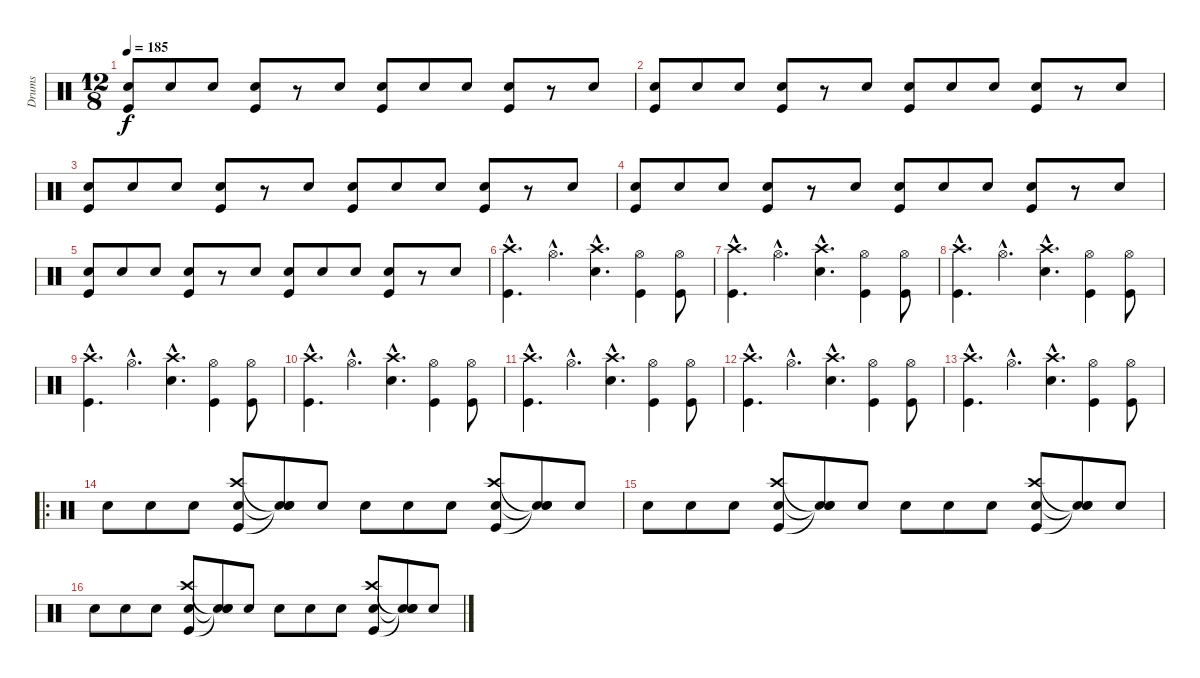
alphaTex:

\track ("Drums" "Drums") {instrument percussion}
\staff {score}
\articulation defaults
\ts (12 8)
\tempo 185
\clef neutral
\ks c
("Snare (hit) 2" "Kick (hit)").8{dy f} "Snare (hit) 2".8 "Snare (hit) 2".8 ("Snare (hit) 2" "Kick (hit)").8 r.8 "Snare (hit) 2".8 ("Snare (hit) 2" "Kick (hit)").8 "Snare (hit) 2".8 "Snare (hit) 2".8 ("Snare (hit) 2" "Kick (hit)").8 r.8 "Snare (hit) 2".8 |
("Snare (hit) 2" "Kick (hit)").8 "Snare (hit) 2".8 "Snare (hit) 2".8 ("Snare (hit) 2" "Kick (hit)").8 r.8 "Snare (hit) 2".8 ("Snare (hit) 2" "Kick (hit)").8 "Snare (hit) 2".8 "Snare (hit) 2".8 ("Snare (hit) 2" "Kick (hit)").8 r.8 "Snare (hit) 2".8 |
("Snare (hit) 2" "Kick (hit)").8 "Snare (hit) 2".8 "Snare (hit) 2".8 ("Snare (hit) 2" "Kick (hit)").8 r.8 "Snare (hit) 2".8 ("Snare (hit) 2" "Kick (hit)").8 "Snare (hit) 2".8 "Snare (hit) 2".8 ("Snare (hit) 2" "Kick (hit)").8 r.8 "Snare (hit) 2".8 |
("Snare (hit) 2" "Kick (hit)").8 "Snare (hit) 2".8 "Snare (hit) 2".8 ("Snare (hit) 2" "Kick (hit)").8 r.8 "Snare (hit) 2".8 ("Snare (hit) 2" "Kick (hit)").8 "Snare (hit) 2".8 "Snare (hit) 2".8 ("Snare (hit) 2" "Kick (hit)").8 r.8 "Snare (hit) 2".8 |
("Snare (hit) 2" "Kick (hit)").8 "Snare (hit) 2".8 "Snare (hit) 2".8 ("Snare (hit) 2" "Kick (hit)").8 r.8 "Snare (hit) 2".8 ("Snare (hit) 2" "Kick (hit)").8 "Snare (hit) 2".8 "Snare (hit) 2".8 ("Snare (hit) 2" "Kick (hit)").8 r.8 "Snare (hit) 2".8 |
("Crash high (hit)"{hac} "Kick (hit)"{hac}).4{d} "Hi-Hat (open)"{hac}.4{d} ("Crash high (hit)"{hac} "Snare (hit) 2"{hac}).4{d} ("Hi-Hat (open)" "Kick (hit)").4 ("Hi-Hat (open)" "Kick (hit)").8 |
("Crash high (hit)"{hac} "Kick (hit)"{hac}).4{d} "Hi-Hat (open)"{hac}.4{d} ("Crash high (hit)"{hac} "Snare (hit) 2"{hac}).4{d} ("Hi-Hat (open)" "Kick (hit)").4 ("Hi-Hat (open)" "Kick (hit)").8 |
("Crash high (hit)"{hac} "Kick (hit)"{hac}).4{d} "Hi-Hat (open)"{hac}.4{d} ("Crash high (hit)"{hac} "Snare (hit) 2"{hac}).4{d} ("Hi-Hat (open)" "Kick (hit)").4 ("Hi-Hat (open)" "Kick (hit)").8 |
("Crash high (hit)"{hac} "Kick (hit)"{hac}).4{d} "Hi-Hat (open)"{hac}.4{d} ("Crash high (hit)"{hac} "Snare (hit) 2"{hac}).4{d} ("Hi-Hat (open)" "Kick (hit)").4 ("Hi-Hat (open)" "Kick (hit)").8 |
("Crash high (hit)"{hac} "Kick (hit)"{hac}).4{d} "Hi-Hat (open)"{hac}.4{d} ("Crash high (hit)"{hac} "Snare (hit) 2"{hac}).4{d} ("Hi-Hat (open)" "Kick (hit)").4 ("Hi-Hat (open)" "Kick (hit)").8 |
("Crash high (hit)"{hac} "Kick (hit)"{hac}).4{d} "Hi-Hat (open)"{hac}.4{d} ("Crash high (hit)"{hac} "Snare (hit) 2"{hac}).4{d} ("Hi-Hat (open)" "Kick (hit)").4 ("Hi-Hat (open)" "Kick (hit)").8 |
("Crash high (hit)"{hac} "Kick (hit)"{hac}).4{d} "Hi-Hat (open)"{hac}.4{d} ("Crash high (hit)"{hac} "Snare (hit) 2"{hac}).4{d} ("Hi-Hat (open)" "Kick (hit)").4 ("Hi-Hat (open)" "Kick (hit)").8 |
("Crash high (hit)"{hac} "Kick (hit)"{hac}).4{d} "Hi-Hat (open)"{hac}.4{d} ("Crash high (hit)"{hac} "Snare (hit) 2"{hac}).4{d} ("Hi-Hat (open)" "Kick (hit)").4 ("Hi-Hat (open)" "Kick (hit)").8 |
\ro "Snare (hit) 2".8 "Snare (hit) 2".8 "Snare (hit) 2".8
("Electric Snare (hit)" "Crash high (hit)" "Kick (hit)").8 ("Snare (hit)"{t} "Snare (hit)"{t} "Snare (hit)"{t}).8 "Snare (hit) 2".8 "Snare (hit) 2".8 "Snare (hit) 2".8 "Snare (hit) 2".8 ("Electric Snare (hit)" "Crash high (hit)" "Kick (hit)").8 ("Snare (hit)"{t} "Snare (hit)"{t} "Snare (hit)"{t}).8 "Snare (hit) 2".8 |
"Snare (hit) 2".8 "Snare (hit) 2".8 "Snare (hit) 2".8 ("Electric Snare (hit)" "Crash high (hit)" "Kick (hit)").8 ("Snare (hit)"{t} "Snare (hit)"{t} "Snare (hit)"{t}).8 "Snare (hit) 2".8 "Snare (hit) 2".8 "Snare (hit) 2".8 "Snare (hit) 2".8 ("Electric Snare (hit)" "Crash high (hit)" "Kick (hit)").8 ("Snare (hit)"{t} "Snare (hit)"{t} "Snare (hit)"{t}).8 "Snare (hit) 2".8 |
"Snare (hit) 2".8 "Snare (hit) 2".8 "Snare (hit) 2".8 ("Electric Snare (hit)" "Crash high (hit)" "Kick (hit)").8 ("Snare (hit)"{t} "Snare (hit)"{t} "Snare (hit)"{t}).8 "Snare (hit) 2".8 "Snare (hit) 2".8 "Snare (hit) 2".8 "Snare (hit) 2".8 ("Electric Snare (hit)" "Crash high (hit)" "Kick (hit)").8 ("Snare (hit)"{t} "Snare (hit)"{t} "Snare (hit)"{t}).8 "Snare (hit) 2".8
